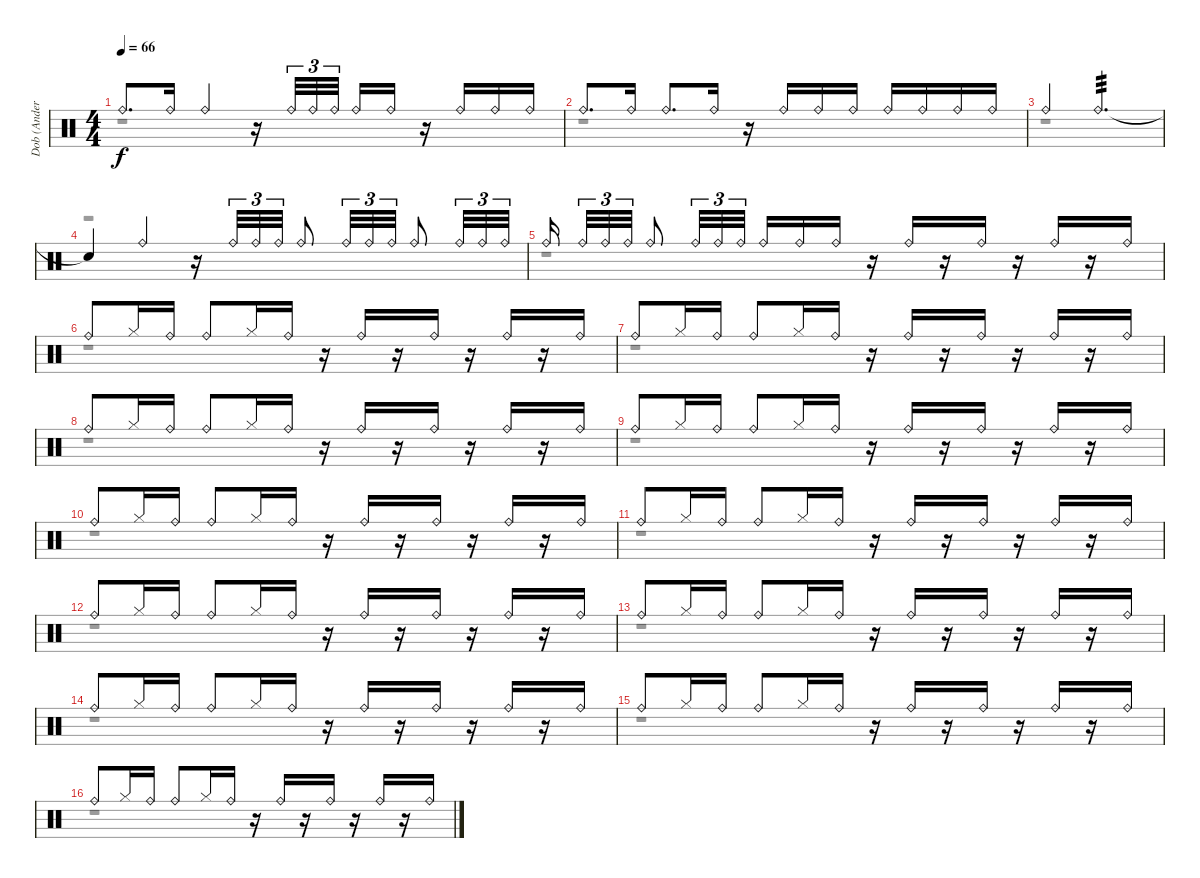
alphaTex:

\track ("Dob (Anders Johansson)" "Dob (Ander") {instrument percussion}
\staff {score}
\articulation defaults
\voice
\ts (4 4)
\tempo 66
\clef neutral
\ks c "Ride (bell)".8{d dy f} "Ride (bell)".16 "Ride (bell)".4
r.16 "Ride (bell)".32{tu (3 2)} "Ride (bell)".32{tu (3 2)} "Ride (bell)".32{tu (3 2) beam splitsecondary} "Ride (bell)".16 "Ride (bell)".16 r.16 "Ride (bell)".16 "Ride (bell)".16 "Ride (bell)".16 |
"Ride (bell)".8{d} "Ride (bell)".16 "Ride (bell)".8{d} "Ride (bell)".16 r.16 "Ride (bell)".16 "Ride (bell)".16 "Ride (bell)".16 "Ride (bell)".16 "Ride (bell)".16 "Ride (bell)".16 "Ride (bell)".16 |
"Ride (bell)".4 "Ride (bell)".2{d tp 3} |
"Snare (hit)"{t}.4 "Ride (bell)".4 r.16 "Ride (bell)".32{tu (3 2)} "Ride (bell)".32{tu (3 2)} "Ride (bell)".32{tu (3 2)} "Ride (bell)".8 "Ride (bell)".32{tu (3 2)} "Ride (bell)".32{tu (3 2)} "Ride (bell)".32{tu (3 2)} "Ride (bell)".8 "Ride (bell)".32{tu (3 2)} "Ride (bell)".32{tu (3 2)} "Ride (bell)".32{tu (3 2)} |
"Ride (bell)".16{beam splitsecondary} "Ride (bell)".32{tu (3 2)} "Ride (bell)".32{tu (3 2)} "Ride (bell)".32{tu (3 2)} "Ride (bell)".8 "Ride (bell)".32{tu (3 2)} "Ride (bell)".32{tu (3 2)} "Ride (bell)".32{tu (3 2) beam splitsecondary} "Ride (bell)".16 "Ride (bell)".16 "Ride (bell)".16 r.16 "Ride (bell)".16 r.16 "Ride (bell)".16 r.16 "Ride (bell)".16 r.16 "Ride (bell)".16 |
"Ride (bell)".8 "Hi-Hat (closed)".16 "Ride (bell)".16 "Ride (bell)".8 "Hi-Hat (closed)".16 "Ride (bell)".16 r.16 "Ride (bell)".16 r.16 "Ride (bell)".16 r.16 "Ride (bell)".16 r.16 "Ride (bell)".16 |
"Ride (bell)".8 "Hi-Hat (closed)".16 "Ride (bell)".16 "Ride (bell)".8 "Hi-Hat (closed)".16 "Ride (bell)".16 r.16 "Ride (bell)".16 r.16 "Ride (bell)".16 r.16 "Ride (bell)".16 r.16 "Ride (bell)".16 |
"Ride (bell)".8 "Hi-Hat (closed)".16 "Ride (bell)".16 "Ride (bell)".8 "Hi-Hat (closed)".16 "Ride (bell)".16 r.16 "Ride (bell)".16 r.16 "Ride (bell)".16 r.16 "Ride (bell)".16 r.16 "Ride (bell)".16 |
"Ride (bell)".8 "Hi-Hat (closed)".16 "Ride (bell)".16 "Ride (bell)".8 "Hi-Hat (closed)".16 "Ride (bell)".16 r.16 "Ride (bell)".16 r.16 "Ride (bell)".16 r.16 "Ride (bell)".16 r.16 "Ride (bell)".16 |
"Ride (bell)".8 "Hi-Hat (closed)".16 "Ride (bell)".16 "Ride (bell)".8 "Hi-Hat (closed)".16 "Ride (bell)".16 r.16 "Ride (bell)".16 r.16 "Ride (bell)".16 r.16 "Ride (bell)".16 r.16 "Ride (bell)".16 |
"Ride (bell)".8 "Hi-Hat (closed)".16 "Ride (bell)".16 "Ride (bell)".8 "Hi-Hat (closed)".16 "Ride (bell)".16 r.16 "Ride (bell)".16 r.16 "Ride (bell)".16 r.16 "Ride (bell)".16 r.16 "Ride (bell)".16 |
"Ride (bell)".8 "Hi-Hat (closed)".16 "Ride (bell)".16 "Ride (bell)".8 "Hi-Hat (closed)".16 "Ride (bell)".16 r.16 "Ride (bell)".16 r.16 "Ride (bell)".16 r.16 "Ride (bell)".16 r.16 "Ride (bell)".16 |
"Ride (bell)".8 "Hi-Hat (closed)".16 "Ride (bell)".16 "Ride (bell)".8 "Hi-Hat (closed)".16 "Ride (bell)".16 r.16 "Ride (bell)".16 r.16 "Ride (bell)".16 r.16 "Ride (bell)".16 r.16 "Ride (bell)".16 |
"Ride (bell)".8 "Hi-Hat (closed)".16 "Ride (bell)".16 "Ride (bell)".8 "Hi-Hat (closed)".16 "Ride (bell)".16 r.16 "Ride (bell)".16 r.16 "Ride (bell)".16 r.16 "Ride (bell)".16 r.16 "Ride (bell)".16 |
"Ride (bell)".8 "Hi-Hat (closed)".16 "Ride (bell)".16 "Ride (bell)".8 "Hi-Hat (closed)".16 "Ride (bell)".16 r.16 "Ride (bell)".16 r.16 "Ride (bell)".16 r.16 "Ride (bell)".16 r.16 "Ride (bell)".16 |
"Ride (bell)".8 "Hi-Hat (closed)".16 "Ride (bell)".16 "Ride (bell)".8 "Hi-Hat (closed)".16 "Ride (bell)".16 r.16 "Ride (bell)".16 r.16 "Ride (bell)".16 r.16 "Ride (bell)".16 r.16 "Ride (bell)".16
\voice
\clef neutral
\ottava regular
\simile none
\ks c
r.1{dy f} |
r.1 |
r.1 |
r.1 |
r.1 |
r.1 |
r.1 |
r.1 |
r.1 |
r.1 |
r.1 |
r.1 |
r.1 |
r.1 |
r.1 |
r.1
